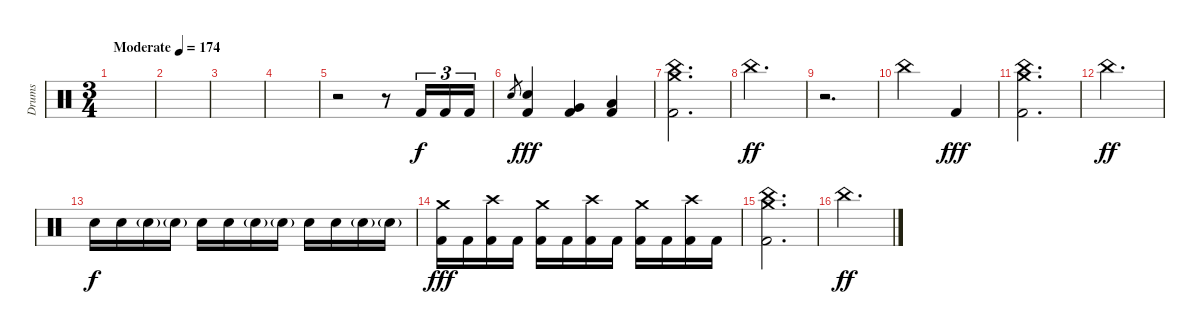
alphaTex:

\track ("Drums" "Drums") {instrument percussion}
\staff {score}
\articulation defaults
\ts (3 4)
\tempo (174 "Moderate")
\clef neutral
\ks c
|
|
|
|
r.2 r.8 "Kick (hit) 2".16{tu (3 2)} "Kick (hit) 2".16{tu (3 2)} "Kick (hit) 2".16{tu (3 2)} |
"Snare (hit) 2".8{gr dy f} ("Snare (hit) 2" "Kick (hit) 2").4{dy fff} ("Very Low Tom (hit)" "Kick (hit) 2").4 ("Low Floor Tom (hit)" "Kick (hit) 2").4 |
("Crash medium (hit)" "China (hit)" "Kick (hit) 2").2{d} |
"China (hit)".2{d dy ff} |
r.2{d} |
"China (hit)".2 "Kick (hit) 2".4{dy fff} |
("Crash medium (hit)" "China (hit)" "Kick (hit) 2").2{d} |
"China (hit)".2{d dy ff} |
"Snare (hit) 2".16{dy f} "Snare (hit) 2".16 "Snare (hit) 2"{g}.16 "Snare (hit) 2"{g}.16 "Snare (hit) 2".16 "Snare (hit) 2".16 "Snare (hit) 2"{g}.16 "Snare (hit) 2"{g}.16 "Snare (hit) 2".16 "Snare (hit) 2".16 "Snare (hit) 2"{g}.16 "Snare (hit) 2"{g}.16 |
("Crash medium (hit)" "Kick (hit) 2").16{dy fff} "Kick (hit) 2".16 ("Crash high (hit)" "Kick (hit) 2").16 "Kick (hit) 2".16 ("Crash medium (hit)" "Kick (hit) 2").16 "Kick (hit) 2".16 ("Crash high (hit)" "Kick (hit) 2").16 "Kick (hit) 2".16 ("Crash medium (hit)" "Kick (hit) 2").16 "Kick (hit) 2".16 ("Crash high (hit)" "Kick (hit) 2").16 "Kick (hit) 2".16 |
("Crash medium (hit)" "China (hit)" "Kick (hit) 2").2{d} |
"China (hit)".2{d dy ff}
